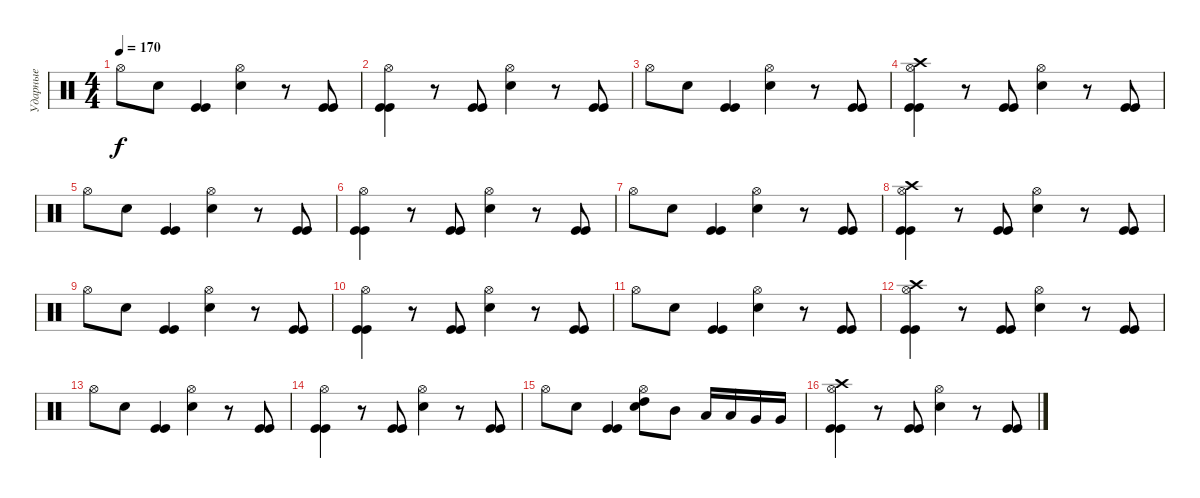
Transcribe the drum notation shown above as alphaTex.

\track ("Ударные" "Ударные") {instrument percussion}
\staff {score}
\articulation defaults
\ts (4 4)
\tempo 170
\clef neutral
\ks c "Hi-Hat (open)".8{dy f} "Electric Snare (hit)".8
("Kick (hit)" "Kick (hit)").4 ("Hi-Hat (open)" "Electric Snare (hit)").4 r.8 ("Kick (hit)" "Kick (hit)").8 |
("Hi-Hat (open)" "Kick (hit)" "Kick (hit)").4 r.8 ("Kick (hit)" "Kick (hit)").8 ("Hi-Hat (open)" "Electric Snare (hit)").4 r.8 ("Kick (hit)" "Kick (hit)").8 |
"Hi-Hat (open)".8 "Electric Snare (hit)".8 ("Kick (hit)" "Kick (hit)").4 ("Hi-Hat (open)" "Electric Snare (hit)").4 r.8 ("Kick (hit)" "Kick (hit)").8 |
("Crash high (hit)" "Hi-Hat (open)" "Kick (hit)" "Kick (hit)").4 r.8 ("Kick (hit)" "Kick (hit)").8 ("Hi-Hat (open)" "Electric Snare (hit)").4 r.8 ("Kick (hit)" "Kick (hit)").8 |
"Hi-Hat (open)".8 "Electric Snare (hit)".8 ("Kick (hit)" "Kick (hit)").4 ("Hi-Hat (open)" "Electric Snare (hit)").4 r.8 ("Kick (hit)" "Kick (hit)").8 |
("Hi-Hat (open)" "Kick (hit)" "Kick (hit)").4 r.8 ("Kick (hit)" "Kick (hit)").8 ("Hi-Hat (open)" "Electric Snare (hit)").4 r.8 ("Kick (hit)" "Kick (hit)").8 |
"Hi-Hat (open)".8 "Electric Snare (hit)".8 ("Kick (hit)" "Kick (hit)").4 ("Hi-Hat (open)" "Electric Snare (hit)").4 r.8 ("Kick (hit)" "Kick (hit)").8 |
("Crash high (hit)" "Hi-Hat (open)" "Kick (hit)" "Kick (hit)").4 r.8 ("Kick (hit)" "Kick (hit)").8 ("Hi-Hat (open)" "Electric Snare (hit)").4 r.8 ("Kick (hit)" "Kick (hit)").8 |
"Hi-Hat (open)".8 "Electric Snare (hit)".8 ("Kick (hit)" "Kick (hit)").4 ("Hi-Hat (open)" "Electric Snare (hit)").4 r.8 ("Kick (hit)" "Kick (hit)").8 |
("Hi-Hat (open)" "Kick (hit)" "Kick (hit)").4 r.8 ("Kick (hit)" "Kick (hit)").8 ("Hi-Hat (open)" "Electric Snare (hit)").4 r.8 ("Kick (hit)" "Kick (hit)").8 |
"Hi-Hat (open)".8 "Electric Snare (hit)".8 ("Kick (hit)" "Kick (hit)").4 ("Hi-Hat (open)" "Electric Snare (hit)").4 r.8 ("Kick (hit)" "Kick (hit)").8 |
("Crash high (hit)" "Hi-Hat (open)" "Kick (hit)" "Kick (hit)").4 r.8 ("Kick (hit)" "Kick (hit)").8 ("Hi-Hat (open)" "Electric Snare (hit)").4 r.8 ("Kick (hit)" "Kick (hit)").8 |
"Hi-Hat (open)".8 "Electric Snare (hit)".8 ("Kick (hit)" "Kick (hit)").4 ("Hi-Hat (open)" "Electric Snare (hit)").4 r.8 ("Kick (hit)" "Kick (hit)").8 |
("Hi-Hat (open)" "Kick (hit)" "Kick (hit)").4 r.8 ("Kick (hit)" "Kick (hit)").8 ("Hi-Hat (open)" "Electric Snare (hit)").4 r.8 ("Kick (hit)" "Kick (hit)").8 |
"Hi-Hat (open)".8 "Electric Snare (hit)".8 ("Kick (hit)" "Kick (hit)").4 ("Hi-Hat (open)" "Electric Snare (hit)" "High Tom (hit)").8 "Mid Tom (hit)".8 "Low Tom (hit)".16 "Low Tom (hit)".16 "Very Low Tom (hit)".16 "Very Low Tom (hit)".16 |
("Crash high (hit)" "Hi-Hat (open)" "Kick (hit)" "Kick (hit)").4 r.8 ("Kick (hit)" "Kick (hit)").8 ("Hi-Hat (open)" "Electric Snare (hit)").4 r.8 ("Kick (hit)" "Kick (hit)").8
